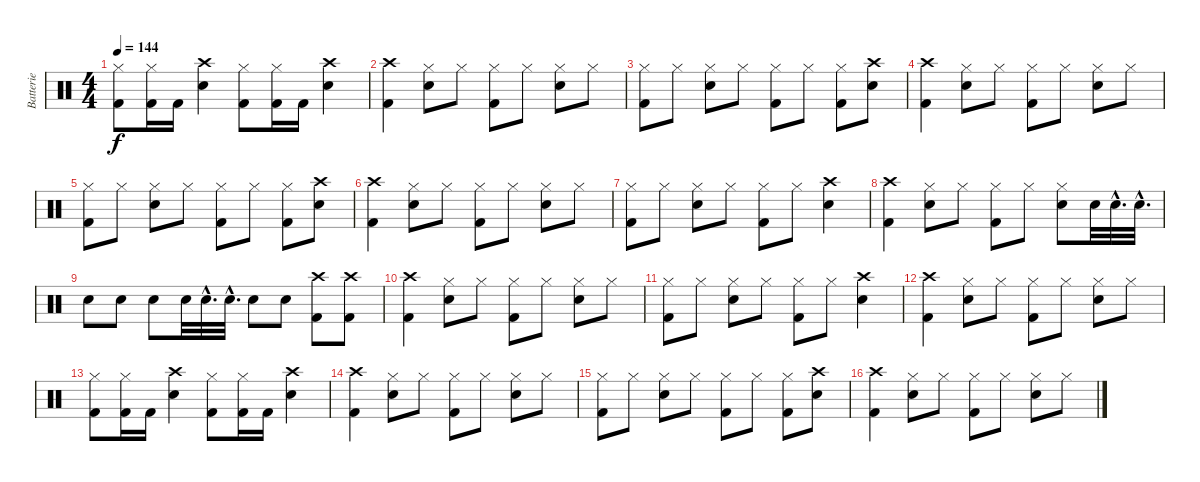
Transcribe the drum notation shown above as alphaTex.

\track ("Batterie" "Batterie") {instrument percussion}
\staff {score}
\articulation defaults
\ts (4 4)
\tempo 144
\clef neutral
\ks c
("Hi-Hat (closed)" "Kick (hit) 2").8{dy f} ("Hi-Hat (closed)" "Kick (hit) 2").16 "Kick (hit) 2".16 ("Crash high (hit)" "Snare (hit) 2").4 ("Hi-Hat (closed)" "Kick (hit) 2").8 ("Hi-Hat (closed)" "Kick (hit) 2").16 "Kick (hit) 2".16 ("Crash high (hit)" "Snare (hit) 2").4 |
("Crash high (hit)" "Kick (hit) 2").4 ("Hi-Hat (closed)" "Snare (hit) 2").8 "Hi-Hat (closed)".8 ("Hi-Hat (closed)" "Kick (hit) 2").8 "Hi-Hat (closed)".8 ("Hi-Hat (closed)" "Snare (hit) 2").8 "Hi-Hat (closed)".8 |
("Hi-Hat (closed)" "Kick (hit) 2").8 "Hi-Hat (closed)".8 ("Hi-Hat (closed)" "Snare (hit) 2").8 "Hi-Hat (closed)".8 ("Hi-Hat (closed)" "Kick (hit) 2").8 "Hi-Hat (closed)".8 ("Hi-Hat (closed)" "Kick (hit) 2").8 ("Crash high (hit)" "Snare (hit) 2").8 |
("Crash high (hit)" "Kick (hit) 2").4 ("Hi-Hat (closed)" "Snare (hit) 2").8 "Hi-Hat (closed)".8 ("Hi-Hat (closed)" "Kick (hit) 2").8 "Hi-Hat (closed)".8 ("Hi-Hat (closed)" "Snare (hit) 2").8 "Hi-Hat (closed)".8 |
("Hi-Hat (closed)" "Kick (hit) 2").8 "Hi-Hat (closed)".8 ("Hi-Hat (closed)" "Snare (hit) 2").8 "Hi-Hat (closed)".8 ("Hi-Hat (closed)" "Kick (hit) 2").8 "Hi-Hat (closed)".8 ("Hi-Hat (closed)" "Kick (hit) 2").8 ("Crash high (hit)" "Snare (hit) 2").8 |
("Crash high (hit)" "Kick (hit) 2").4 ("Hi-Hat (closed)" "Snare (hit) 2").8 "Hi-Hat (closed)".8 ("Hi-Hat (closed)" "Kick (hit) 2").8 "Hi-Hat (closed)".8 ("Hi-Hat (closed)" "Snare (hit) 2").8 "Hi-Hat (closed)".8 |
("Hi-Hat (closed)" "Kick (hit) 2").8 "Hi-Hat (closed)".8 ("Hi-Hat (closed)" "Snare (hit) 2").8 "Hi-Hat (closed)".8 ("Hi-Hat (closed)" "Kick (hit) 2").8 "Hi-Hat (closed)".8 ("Crash high (hit)" "Snare (hit) 2").4 |
("Crash high (hit)" "Kick (hit) 2").4 ("Hi-Hat (closed)" "Snare (hit) 2").8 "Hi-Hat (closed)".8 ("Hi-Hat (closed)" "Kick (hit) 2").8 "Hi-Hat (closed)".8 ("Hi-Hat (closed)" "Snare (hit) 2").8 "Snare (hit) 2".32 "Snare (hit) 2"{hac}.32{d} "Snare (hit) 2"{hac}.32{d} |
"Snare (hit) 2".8 "Snare (hit) 2".8 "Snare (hit) 2".8 "Snare (hit) 2".32 "Snare (hit) 2"{hac}.32{d} "Snare (hit) 2"{hac}.32{d} "Snare (hit) 2".8 "Snare (hit) 2".8 ("Crash high (hit)" "Kick (hit) 2").8 ("Crash high (hit)" "Kick (hit) 2").8 |
("Crash high (hit)" "Kick (hit) 2").4 ("Hi-Hat (closed)" "Snare (hit) 2").8 "Hi-Hat (closed)".8 ("Hi-Hat (closed)" "Kick (hit) 2").8 "Hi-Hat (closed)".8 ("Hi-Hat (closed)" "Snare (hit) 2").8 "Hi-Hat (closed)".8 |
("Hi-Hat (closed)" "Kick (hit) 2").8 "Hi-Hat (closed)".8 ("Hi-Hat (closed)" "Snare (hit) 2").8 "Hi-Hat (closed)".8 ("Hi-Hat (closed)" "Kick (hit) 2").8 "Hi-Hat (closed)".8 ("Crash high (hit)" "Snare (hit) 2").4 |
("Crash high (hit)" "Kick (hit) 2").4 ("Hi-Hat (closed)" "Snare (hit) 2").8 "Hi-Hat (closed)".8 ("Hi-Hat (closed)" "Kick (hit) 2").8 "Hi-Hat (closed)".8 ("Hi-Hat (closed)" "Snare (hit) 2").8 "Hi-Hat (closed)".8 |
("Hi-Hat (closed)" "Kick (hit) 2").8 ("Hi-Hat (closed)" "Kick (hit) 2").16 "Kick (hit) 2".16 ("Crash high (hit)" "Snare (hit) 2").4 ("Hi-Hat (closed)" "Kick (hit) 2").8 ("Hi-Hat (closed)" "Kick (hit) 2").16 "Kick (hit) 2".16 ("Crash high (hit)" "Snare (hit) 2").4 |
("Crash high (hit)" "Kick (hit) 2").4{volume 15} ("Hi-Hat (closed)" "Snare (hit) 2").8 "Hi-Hat (closed)".8 ("Hi-Hat (closed)" "Kick (hit) 2").8 "Hi-Hat (closed)".8 ("Hi-Hat (closed)" "Snare (hit) 2").8 "Hi-Hat (closed)".8 |
("Hi-Hat (closed)" "Kick (hit) 2").8{volume 14} "Hi-Hat (closed)".8 ("Hi-Hat (closed)" "Snare (hit) 2").8 "Hi-Hat (closed)".8 ("Hi-Hat (closed)" "Kick (hit) 2").8 "Hi-Hat (closed)".8 ("Hi-Hat (closed)" "Kick (hit) 2").8 ("Crash high (hit)" "Snare (hit) 2").8 |
("Crash high (hit)" "Kick (hit) 2").4{volume 13} ("Hi-Hat (closed)" "Snare (hit) 2").8 "Hi-Hat (closed)".8 ("Hi-Hat (closed)" "Kick (hit) 2").8 "Hi-Hat (closed)".8 ("Hi-Hat (closed)" "Snare (hit) 2").8 "Hi-Hat (closed)".8
